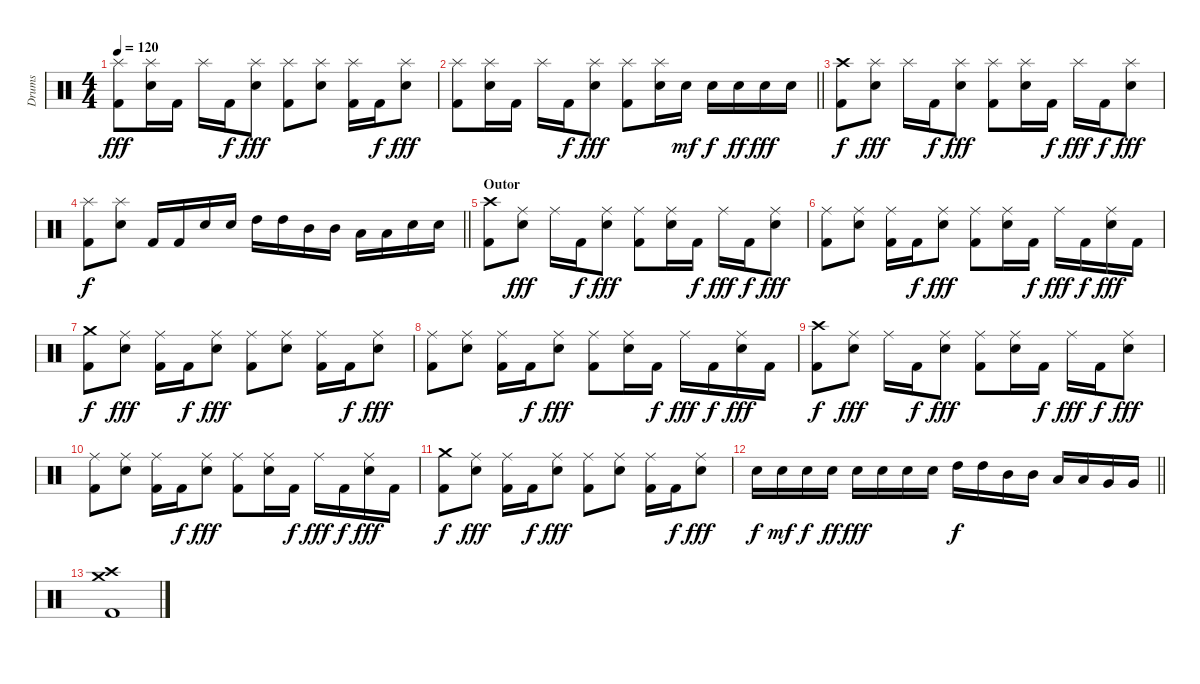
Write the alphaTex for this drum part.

\track ("Drums" "Drums") {instrument percussion}
\staff {score}
\articulation defaults
\ts (4 4)
\tempo 120
\clef neutral
\ks c
("Splash (hit)" "Kick (hit) 2").8{dy fff} ("Splash (hit)" "Snare (hit) 2").16 "Kick (hit) 2".16 "Splash (hit)".16 "Kick (hit) 2".16{dy f} ("Splash (hit)" "Snare (hit) 2").8{dy fff} ("Splash (hit)" "Kick (hit) 2").8 ("Splash (hit)" "Snare (hit) 2").8 ("Splash (hit)" "Kick (hit) 2").16 "Kick (hit) 2".16{dy f} ("Splash (hit)" "Snare (hit) 2").8{dy fff} |
\barLineRight lightlight
("Splash (hit)" "Kick (hit) 2").8 ("Splash (hit)" "Snare (hit) 2").16 "Kick (hit) 2".16 "Splash (hit)".16 "Kick (hit) 2".16{dy f} ("Splash (hit)" "Snare (hit) 2").8{dy fff} ("Splash (hit)" "Kick (hit) 2").8 ("Splash (hit)" "Snare (hit) 2").16 "Snare (hit) 2".16{dy mf} "Snare (hit) 2".16{dy f} "Snare (hit) 2".16{dy ff} "Snare (hit) 2".16{dy fff} "Snare (hit) 2".16 |
("Crash high (hit)" "Kick (hit) 2").8{dy f} ("Splash (hit)" "Snare (hit) 2").8{dy fff} "Splash (hit)".16 "Kick (hit) 2".16{dy f} ("Splash (hit)" "Snare (hit) 2").8{dy fff} ("Splash (hit)" "Kick (hit) 2").8 ("Splash (hit)" "Snare (hit) 2").16 "Kick (hit) 2".16{dy f} "Splash (hit)".16{dy fff} "Kick (hit) 2".16{dy f} ("Splash (hit)" "Snare (hit) 2").8{dy fff} |
\barLineRight lightlight
("Splash (hit)" "Kick (hit) 2").8{dy f} ("Splash (hit)" "Snare (hit) 2").8 "Kick (hit) 2".16 "Kick (hit) 2".16 "Snare (hit) 2".16 "Snare (hit) 2".16 "High Tom (hit)".16 "High Tom (hit)".16 "Mid Tom (hit)".16 "Mid Tom (hit)".16 "Low Tom (hit)".16 "Low Tom (hit)".16 "Snare (hit) 2".16 "Snare (hit) 2".16 |
\section ("" "Outor")
("Crash high (hit)" "Kick (hit) 2").8 ("Ride (middle)" "Snare (hit) 2").8{dy fff} "Ride (middle)".16 "Kick (hit) 2".16{dy f} ("Ride (middle)" "Snare (hit) 2").8{dy fff} ("Ride (middle)" "Kick (hit) 2").8 ("Ride (middle)" "Snare (hit) 2").16 "Kick (hit) 2".16{dy f} "Ride (middle)".16{dy fff} "Kick (hit) 2".16{dy f} ("Ride (middle)" "Snare (hit) 2").8{dy fff} |
("Ride (middle)" "Kick (hit) 2").8 ("Ride (middle)" "Snare (hit) 2").8 ("Ride (middle)" "Kick (hit) 2").16 "Kick (hit) 2".16{dy f} ("Ride (middle)" "Snare (hit) 2").8{dy fff} ("Ride (middle)" "Kick (hit) 2").8 ("Ride (middle)" "Snare (hit) 2").16 "Kick (hit) 2".16{dy f} "Ride (middle)".16{dy fff} "Kick (hit) 2".16{dy f} ("Ride (middle)" "Snare (hit) 2").16{dy fff} "Kick (hit) 2".16 |
("Crash medium (hit)" "Kick (hit) 2").8{dy f} ("Ride (middle)" "Snare (hit) 2").8{dy fff} ("Ride (middle)" "Kick (hit) 2").16 "Kick (hit) 2".16{dy f} ("Ride (middle)" "Snare (hit) 2").8{dy fff} ("Ride (middle)" "Kick (hit) 2").8 ("Ride (middle)" "Snare (hit) 2").8 ("Ride (middle)" "Kick (hit) 2").16 "Kick (hit) 2".16{dy f} ("Ride (middle)" "Snare (hit) 2").8{dy fff} |
("Ride (middle)" "Kick (hit) 2").8 ("Ride (middle)" "Snare (hit) 2").8 ("Ride (middle)" "Kick (hit) 2").16 "Kick (hit) 2".16{dy f} ("Ride (middle)" "Snare (hit) 2").8{dy fff} ("Ride (middle)" "Kick (hit) 2").8 ("Ride (middle)" "Snare (hit) 2").16 "Kick (hit) 2".16{dy f} "Ride (middle)".16{dy fff} "Kick (hit) 2".16{dy f} ("Ride (middle)" "Snare (hit) 2").16{dy fff} "Kick (hit) 2".16 |
("Crash high (hit)" "Kick (hit) 2").8{dy f} ("Ride (middle)" "Snare (hit) 2").8{dy fff} "Ride (middle)".16 "Kick (hit) 2".16{dy f} ("Ride (middle)" "Snare (hit) 2").8{dy fff} ("Ride (middle)" "Kick (hit) 2").8 ("Ride (middle)" "Snare (hit) 2").16 "Kick (hit) 2".16{dy f} "Ride (middle)".16{dy fff} "Kick (hit) 2".16{dy f} ("Ride (middle)" "Snare (hit) 2").8{dy fff} |
("Ride (middle)" "Kick (hit) 2").8 ("Ride (middle)" "Snare (hit) 2").8 ("Ride (middle)" "Kick (hit) 2").16 "Kick (hit) 2".16{dy f} ("Ride (middle)" "Snare (hit) 2").8{dy fff} ("Ride (middle)" "Kick (hit) 2").8 ("Ride (middle)" "Snare (hit) 2").16 "Kick (hit) 2".16{dy f} "Ride (middle)".16{dy fff} "Kick (hit) 2".16{dy f} ("Ride (middle)" "Snare (hit) 2").16{dy fff} "Kick (hit) 2".16 |
("Crash medium (hit)" "Kick (hit) 2").8{dy f} ("Ride (middle)" "Snare (hit) 2").8{dy fff} ("Ride (middle)" "Kick (hit) 2").16 "Kick (hit) 2".16{dy f} ("Ride (middle)" "Snare (hit) 2").8{dy fff} ("Ride (middle)" "Kick (hit) 2").8 ("Ride (middle)" "Snare (hit) 2").8 ("Ride (middle)" "Kick (hit) 2").16 "Kick (hit) 2".16{dy f} ("Ride (middle)" "Snare (hit) 2").8{dy fff} |
\barLineRight lightlight "Snare (hit) 2".16{dy f} "Snare (hit) 2".16{dy mf} "Snare (hit) 2".16{dy f} "Snare (hit) 2".16{dy ff} "Snare (hit) 2".16{dy fff} "Snare (hit) 2".16 "Snare (hit) 2".16 "Snare (hit) 2".16 "High Tom (hit)".16{dy f} "High Tom (hit)".16 "Mid Tom (hit)".16 "Mid Tom (hit)".16 "Low Tom (hit)".16 "Low Tom (hit)".16 "Very Low Tom (hit)".16 "Very Low Tom (hit)".16
|
("Crash high (hit)" "Crash medium (hit)" "Kick (hit) 2").1
